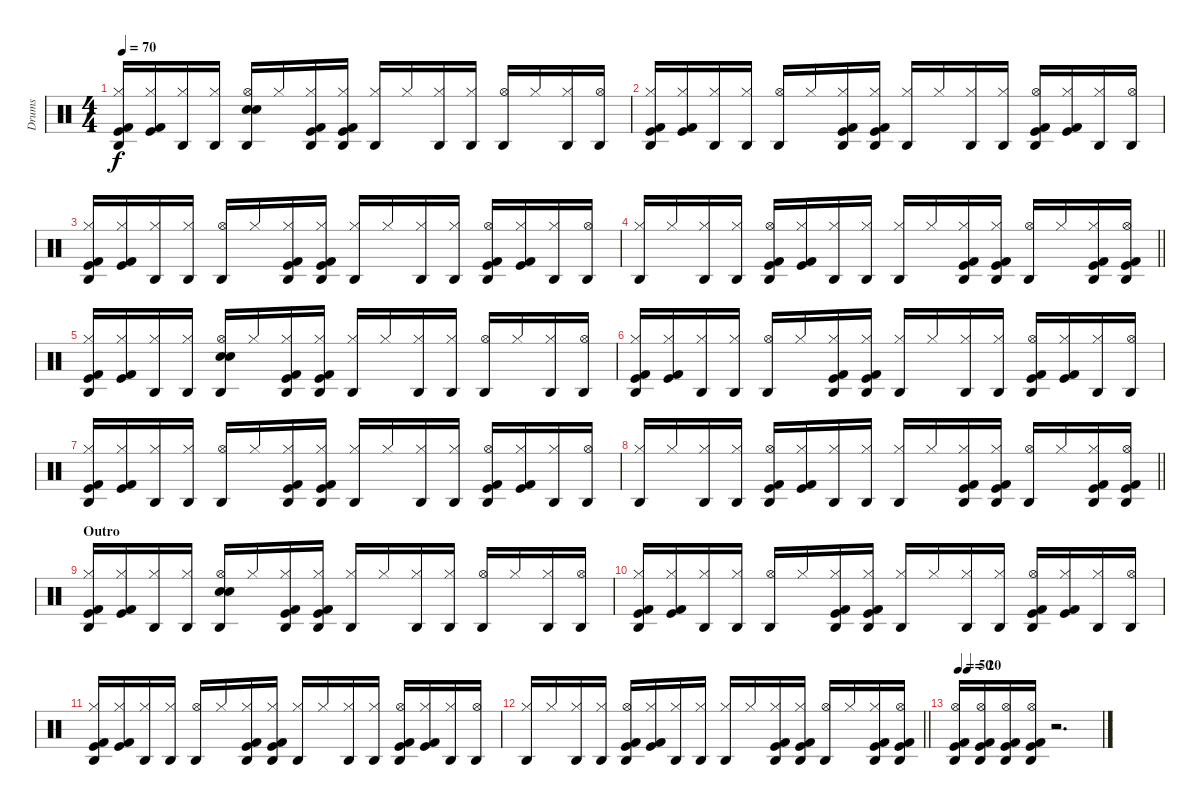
\track ("Drums" "Drums") {instrument percussion}
\staff {score}
\articulation defaults
\ts (4 4)
\tempo 70
\clef neutral
\ks c
("Agogo high (hit)" "Hi-Hat (closed)" "Kick (hit)" "Kick (hit) 2").16{dy f} ("Hi-Hat (closed)" "Kick (hit)" "Kick (hit) 2").16 ("Agogo high (hit)" "Hi-Hat (closed)").16 ("Agogo high (hit)" "Hi-Hat (closed)").16 ("Agogo high (hit)" "Hi-Hat (open)" "Snare (hit) 2" "Electric Snare (hit)").16 "Hi-Hat (closed)".16 ("Agogo high (hit)" "Hi-Hat (closed)" "Kick (hit)" "Kick (hit) 2").16 ("Agogo high (hit)" "Hi-Hat (closed)" "Kick (hit)" "Kick (hit) 2").16 ("Agogo high (hit)" "Hi-Hat (closed)").16 "Hi-Hat (closed)".16 ("Agogo high (hit)" "Hi-Hat (closed)").16 ("Agogo high (hit)" "Hi-Hat (closed)").16 ("Agogo high (hit)" "Hi-Hat (open)").16 "Hi-Hat (closed)".16 ("Agogo high (hit)" "Hi-Hat (closed)").16 ("Agogo high (hit)" "Hi-Hat (open)").16 |
("Agogo high (hit)" "Hi-Hat (closed)" "Kick (hit)" "Kick (hit) 2").16 ("Hi-Hat (closed)" "Kick (hit)" "Kick (hit) 2").16 ("Agogo high (hit)" "Hi-Hat (closed)").16 ("Agogo high (hit)" "Hi-Hat (closed)").16 ("Agogo high (hit)" "Hi-Hat (open)").16 "Hi-Hat (closed)".16 ("Agogo high (hit)" "Hi-Hat (closed)" "Kick (hit)" "Kick (hit) 2").16 ("Agogo high (hit)" "Hi-Hat (closed)" "Kick (hit)" "Kick (hit) 2").16 ("Agogo high (hit)" "Hi-Hat (closed)").16 "Hi-Hat (closed)".16 ("Agogo high (hit)" "Hi-Hat (closed)").16 ("Agogo high (hit)" "Hi-Hat (closed)").16 ("Agogo high (hit)" "Hi-Hat (open)" "Kick (hit)" "Kick (hit) 2").16 ("Hi-Hat (closed)" "Kick (hit)" "Kick (hit) 2").16 ("Agogo high (hit)" "Hi-Hat (closed)").16 ("Agogo high (hit)" "Hi-Hat (open)").16 |
("Agogo high (hit)" "Hi-Hat (closed)" "Kick (hit)" "Kick (hit) 2").16 ("Hi-Hat (closed)" "Kick (hit)" "Kick (hit) 2").16 ("Agogo high (hit)" "Hi-Hat (closed)").16 ("Agogo high (hit)" "Hi-Hat (closed)").16 ("Agogo high (hit)" "Hi-Hat (open)").16 "Hi-Hat (closed)".16 ("Agogo high (hit)" "Hi-Hat (closed)" "Kick (hit)" "Kick (hit) 2").16 ("Agogo high (hit)" "Hi-Hat (closed)" "Kick (hit)" "Kick (hit) 2").16 ("Agogo high (hit)" "Hi-Hat (closed)").16 "Hi-Hat (closed)".16 ("Agogo high (hit)" "Hi-Hat (closed)").16 ("Agogo high (hit)" "Hi-Hat (closed)").16 ("Agogo high (hit)" "Hi-Hat (open)" "Kick (hit)" "Kick (hit) 2").16 ("Hi-Hat (closed)" "Kick (hit)" "Kick (hit) 2").16 ("Agogo high (hit)" "Hi-Hat (closed)").16 ("Agogo high (hit)" "Hi-Hat (open)").16 |
\barLineRight lightlight
("Agogo high (hit)" "Hi-Hat (closed)").16 "Hi-Hat (closed)".16 ("Agogo high (hit)" "Hi-Hat (closed)").16 ("Agogo high (hit)" "Hi-Hat (closed)").16 ("Agogo high (hit)" "Hi-Hat (open)" "Kick (hit)" "Kick (hit) 2").16 ("Hi-Hat (closed)" "Kick (hit)" "Kick (hit) 2").16 ("Agogo high (hit)" "Hi-Hat (closed)").16 ("Agogo high (hit)" "Hi-Hat (closed)").16 ("Agogo high (hit)" "Hi-Hat (closed)").16 "Hi-Hat (closed)".16 ("Agogo high (hit)" "Hi-Hat (closed)" "Kick (hit)" "Kick (hit) 2").16 ("Agogo high (hit)" "Hi-Hat (closed)" "Kick (hit)" "Kick (hit) 2").16 ("Agogo high (hit)" "Hi-Hat (open)").16 "Hi-Hat (closed)".16 ("Agogo high (hit)" "Hi-Hat (closed)" "Kick (hit)" "Kick (hit) 2").16 ("Agogo high (hit)" "Hi-Hat (open)" "Kick (hit)" "Kick (hit) 2").16 |
("Agogo high (hit)" "Hi-Hat (closed)" "Kick (hit)" "Kick (hit) 2").16 ("Hi-Hat (closed)" "Kick (hit)" "Kick (hit) 2").16 ("Agogo high (hit)" "Hi-Hat (closed)").16 ("Agogo high (hit)" "Hi-Hat (closed)").16 ("Agogo high (hit)" "Hi-Hat (open)" "Snare (hit) 2" "Electric Snare (hit)").16 "Hi-Hat (closed)".16 ("Agogo high (hit)" "Hi-Hat (closed)" "Kick (hit)" "Kick (hit) 2").16 ("Agogo high (hit)" "Hi-Hat (closed)" "Kick (hit)" "Kick (hit) 2").16 ("Agogo high (hit)" "Hi-Hat (closed)").16 "Hi-Hat (closed)".16 ("Agogo high (hit)" "Hi-Hat (closed)").16 ("Agogo high (hit)" "Hi-Hat (closed)").16 ("Agogo high (hit)" "Hi-Hat (open)").16 "Hi-Hat (closed)".16 ("Agogo high (hit)" "Hi-Hat (closed)").16 ("Agogo high (hit)" "Hi-Hat (open)").16 |
("Agogo high (hit)" "Hi-Hat (closed)" "Kick (hit)" "Kick (hit) 2").16 ("Hi-Hat (closed)" "Kick (hit)" "Kick (hit) 2").16 ("Agogo high (hit)" "Hi-Hat (closed)").16 ("Agogo high (hit)" "Hi-Hat (closed)").16 ("Agogo high (hit)" "Hi-Hat (open)").16 "Hi-Hat (closed)".16 ("Agogo high (hit)" "Hi-Hat (closed)" "Kick (hit)" "Kick (hit) 2").16 ("Agogo high (hit)" "Hi-Hat (closed)" "Kick (hit)" "Kick (hit) 2").16 ("Agogo high (hit)" "Hi-Hat (closed)").16 "Hi-Hat (closed)".16 ("Agogo high (hit)" "Hi-Hat (closed)").16 ("Agogo high (hit)" "Hi-Hat (closed)").16 ("Agogo high (hit)" "Hi-Hat (open)" "Kick (hit)" "Kick (hit) 2").16 ("Hi-Hat (closed)" "Kick (hit)" "Kick (hit) 2").16 ("Agogo high (hit)" "Hi-Hat (closed)").16 ("Agogo high (hit)" "Hi-Hat (open)").16 |
("Agogo high (hit)" "Hi-Hat (closed)" "Kick (hit)" "Kick (hit) 2").16 ("Hi-Hat (closed)" "Kick (hit)" "Kick (hit) 2").16 ("Agogo high (hit)" "Hi-Hat (closed)").16 ("Agogo high (hit)" "Hi-Hat (closed)").16 ("Agogo high (hit)" "Hi-Hat (open)").16 "Hi-Hat (closed)".16 ("Agogo high (hit)" "Hi-Hat (closed)" "Kick (hit)" "Kick (hit) 2").16 ("Agogo high (hit)" "Hi-Hat (closed)" "Kick (hit)" "Kick (hit) 2").16 ("Agogo high (hit)" "Hi-Hat (closed)").16 "Hi-Hat (closed)".16 ("Agogo high (hit)" "Hi-Hat (closed)").16 ("Agogo high (hit)" "Hi-Hat (closed)").16 ("Agogo high (hit)" "Hi-Hat (open)" "Kick (hit)" "Kick (hit) 2").16 ("Hi-Hat (closed)" "Kick (hit)" "Kick (hit) 2").16 ("Agogo high (hit)" "Hi-Hat (closed)").16 ("Agogo high (hit)" "Hi-Hat (open)").16 |
\barLineRight lightlight
("Agogo high (hit)" "Hi-Hat (closed)").16 "Hi-Hat (closed)".16 ("Agogo high (hit)" "Hi-Hat (closed)").16 ("Agogo high (hit)" "Hi-Hat (closed)").16 ("Agogo high (hit)" "Hi-Hat (open)" "Kick (hit)" "Kick (hit) 2").16 ("Hi-Hat (closed)" "Kick (hit)" "Kick (hit) 2").16 ("Agogo high (hit)" "Hi-Hat (closed)").16 ("Agogo high (hit)" "Hi-Hat (closed)").16 ("Agogo high (hit)" "Hi-Hat (closed)").16 "Hi-Hat (closed)".16 ("Agogo high (hit)" "Hi-Hat (closed)" "Kick (hit)" "Kick (hit) 2").16 ("Agogo high (hit)" "Hi-Hat (closed)" "Kick (hit)" "Kick (hit) 2").16 ("Agogo high (hit)" "Hi-Hat (open)").16 "Hi-Hat (closed)".16 ("Agogo high (hit)" "Hi-Hat (closed)" "Kick (hit)" "Kick (hit) 2").16 ("Agogo high (hit)" "Hi-Hat (open)" "Kick (hit)" "Kick (hit) 2").16 |
\section ("" "Outro")
("Agogo high (hit)" "Hi-Hat (closed)" "Kick (hit)" "Kick (hit) 2").16 ("Hi-Hat (closed)" "Kick (hit)" "Kick (hit) 2").16 ("Agogo high (hit)" "Hi-Hat (closed)").16 ("Agogo high (hit)" "Hi-Hat (closed)").16 ("Agogo high (hit)" "Hi-Hat (open)" "Snare (hit) 2" "Electric Snare (hit)").16 "Hi-Hat (closed)".16 ("Agogo high (hit)" "Hi-Hat (closed)" "Kick (hit)" "Kick (hit) 2").16 ("Agogo high (hit)" "Hi-Hat (closed)" "Kick (hit)" "Kick (hit) 2").16 ("Agogo high (hit)" "Hi-Hat (closed)").16 "Hi-Hat (closed)".16 ("Agogo high (hit)" "Hi-Hat (closed)").16 ("Agogo high (hit)" "Hi-Hat (closed)").16 ("Agogo high (hit)" "Hi-Hat (open)").16 "Hi-Hat (closed)".16 ("Agogo high (hit)" "Hi-Hat (closed)").16 ("Agogo high (hit)" "Hi-Hat (open)").16 |
("Agogo high (hit)" "Hi-Hat (closed)" "Kick (hit)" "Kick (hit) 2").16 ("Hi-Hat (closed)" "Kick (hit)" "Kick (hit) 2").16 ("Agogo high (hit)" "Hi-Hat (closed)").16 ("Agogo high (hit)" "Hi-Hat (closed)").16 ("Agogo high (hit)" "Hi-Hat (open)").16 "Hi-Hat (closed)".16 ("Agogo high (hit)" "Hi-Hat (closed)" "Kick (hit)" "Kick (hit) 2").16 ("Agogo high (hit)" "Hi-Hat (closed)" "Kick (hit)" "Kick (hit) 2").16 ("Agogo high (hit)" "Hi-Hat (closed)").16 "Hi-Hat (closed)".16 ("Agogo high (hit)" "Hi-Hat (closed)").16 ("Agogo high (hit)" "Hi-Hat (closed)").16 ("Agogo high (hit)" "Hi-Hat (open)" "Kick (hit)" "Kick (hit) 2").16 ("Hi-Hat (closed)" "Kick (hit)" "Kick (hit) 2").16 ("Agogo high (hit)" "Hi-Hat (closed)").16 ("Agogo high (hit)" "Hi-Hat (open)").16 |
("Agogo high (hit)" "Hi-Hat (closed)" "Kick (hit)" "Kick (hit) 2").16 ("Hi-Hat (closed)" "Kick (hit)" "Kick (hit) 2").16 ("Agogo high (hit)" "Hi-Hat (closed)").16 ("Agogo high (hit)" "Hi-Hat (closed)").16 ("Agogo high (hit)" "Hi-Hat (open)").16 "Hi-Hat (closed)".16 ("Agogo high (hit)" "Hi-Hat (closed)" "Kick (hit)" "Kick (hit) 2").16 ("Agogo high (hit)" "Hi-Hat (closed)" "Kick (hit)" "Kick (hit) 2").16 ("Agogo high (hit)" "Hi-Hat (closed)").16 "Hi-Hat (closed)".16 ("Agogo high (hit)" "Hi-Hat (closed)").16 ("Agogo high (hit)" "Hi-Hat (closed)").16 ("Agogo high (hit)" "Hi-Hat (open)" "Kick (hit)" "Kick (hit) 2").16 ("Hi-Hat (closed)" "Kick (hit)" "Kick (hit) 2").16 ("Agogo high (hit)" "Hi-Hat (closed)").16 ("Agogo high (hit)" "Hi-Hat (open)").16 |
\barLineRight lightlight
("Agogo high (hit)" "Hi-Hat (closed)").16 "Hi-Hat (closed)".16 ("Agogo high (hit)" "Hi-Hat (closed)").16 ("Agogo high (hit)" "Hi-Hat (closed)").16 ("Agogo high (hit)" "Hi-Hat (open)" "Kick (hit)" "Kick (hit) 2").16 ("Hi-Hat (closed)" "Kick (hit)" "Kick (hit) 2").16 ("Agogo high (hit)" "Hi-Hat (closed)").16 ("Agogo high (hit)" "Hi-Hat (closed)").16 ("Agogo high (hit)" "Hi-Hat (closed)").16 "Hi-Hat (closed)".16 ("Agogo high (hit)" "Hi-Hat (closed)" "Kick (hit)" "Kick (hit) 2").16 ("Agogo high (hit)" "Hi-Hat (closed)" "Kick (hit)" "Kick (hit) 2").16 ("Agogo high (hit)" "Hi-Hat (open)").16 "Hi-Hat (closed)".16 ("Agogo high (hit)" "Hi-Hat (closed)" "Kick (hit)" "Kick (hit) 2").16 ("Agogo high (hit)" "Hi-Hat (open)" "Kick (hit)" "Kick (hit) 2").16 |
\tempo 50
\tempo (20 0.0625)
("Agogo high (hit)" "Hi-Hat (open)" "Kick (hit)" "Kick (hit) 2").16 ("Agogo high (hit)" "Hi-Hat (open)" "Kick (hit)" "Kick (hit) 2").16 ("Agogo high (hit)" "Hi-Hat (open)" "Kick (hit)" "Kick (hit) 2").16 ("Agogo high (hit)" "Hi-Hat (open)" "Kick (hit)" "Kick (hit) 2").16 r.2{d}
